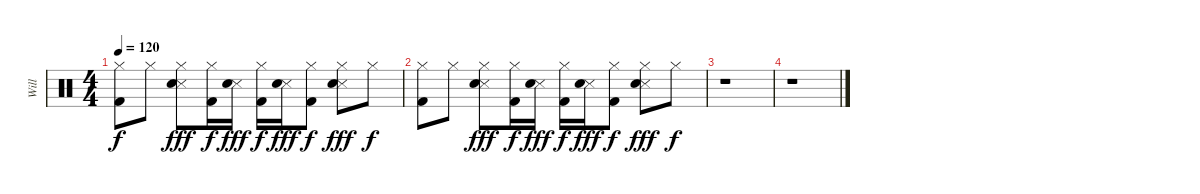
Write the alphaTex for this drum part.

\track ("Will " "Will ") {instrument percussion}
\staff {score}
\articulation defaults
\ts (4 4)
\tempo 120
\clef neutral
\ks c
("Hi-Hat (closed)" "Kick (hit) 2").8{dy f} "Hi-Hat (closed)".8 ("Hi-Hat (closed)" "Snare (side stick) 3" "Electric Snare (hit)").8{dy fff} ("Hi-Hat (closed)" "Kick (hit) 2").16{dy f} ("Snare (side stick) 3" "Electric Snare (hit)").16{dy fff} ("Hi-Hat (closed)" "Kick (hit) 2").16{dy f} ("Snare (side stick) 3" "Electric Snare (hit)").16{dy fff} ("Hi-Hat (closed)" "Kick (hit) 2").8{dy f} ("Hi-Hat (closed)" "Snare (side stick) 3" "Electric Snare (hit)").8{dy fff} "Hi-Hat (closed)".8{dy f} |
("Hi-Hat (closed)" "Kick (hit) 2").8 "Hi-Hat (closed)".8 ("Hi-Hat (closed)" "Snare (side stick) 3" "Electric Snare (hit)").8{dy fff} ("Hi-Hat (closed)" "Kick (hit) 2").16{dy f} ("Snare (side stick) 3" "Electric Snare (hit)").16{dy fff} ("Hi-Hat (closed)" "Kick (hit) 2").16{dy f} ("Snare (side stick) 3" "Electric Snare (hit)").16{dy fff} ("Hi-Hat (closed)" "Kick (hit) 2").8{dy f} ("Hi-Hat (closed)" "Snare (side stick) 3" "Electric Snare (hit)").8{dy fff} "Hi-Hat (closed)".8{dy f} |
r.1 |
r.1
